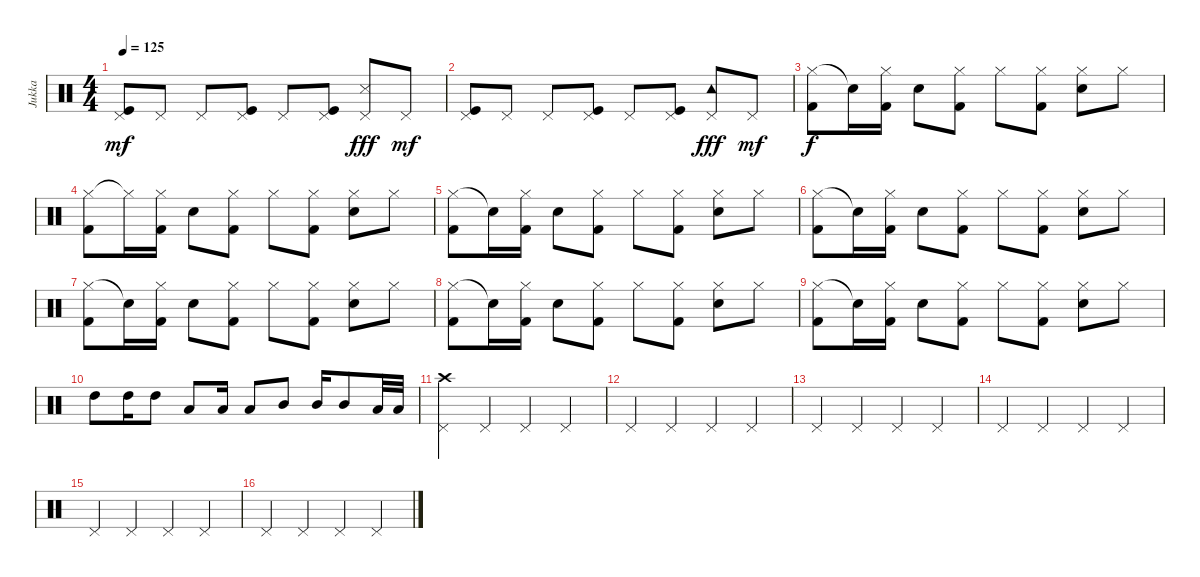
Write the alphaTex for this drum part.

\track ("Jukka" "Jukka") {instrument percussion}
\staff {score}
\articulation defaults
\ts (4 4)
\tempo 125
\clef neutral
\ks c
("Pedal Hi-Hat (hit)" "Kick (hit)").8{dy mf} "Pedal Hi-Hat (hit)".8 "Pedal Hi-Hat (hit)".8 ("Pedal Hi-Hat (hit)" "Kick (hit)").8 "Pedal Hi-Hat (hit)".8 ("Pedal Hi-Hat (hit)" "Kick (hit)").8 ("Pedal Hi-Hat (hit)" "Snare (side stick) 3").8{dy fff} "Pedal Hi-Hat (hit)".8{dy mf} |
("Pedal Hi-Hat (hit)" "Kick (hit)").8 "Pedal Hi-Hat (hit)".8 "Pedal Hi-Hat (hit)".8 ("Pedal Hi-Hat (hit)" "Kick (hit)").8 "Pedal Hi-Hat (hit)".8 ("Pedal Hi-Hat (hit)" "Kick (hit)").8 ("Pedal Hi-Hat (hit)" "Tambourine (hit)").8{dy fff} "Pedal Hi-Hat (hit)".8{dy mf} |
("Hi-Hat (closed)" "Kick (hit) 2").8{dy f} "Snare (hit)"{t}.16 ("Hi-Hat (closed)" "Kick (hit) 2").16 "Electric Snare (hit)".8 ("Hi-Hat (closed)" "Kick (hit) 2").8 "Hi-Hat (closed)".8 ("Hi-Hat (closed)" "Kick (hit) 2").8 ("Hi-Hat (closed)" "Electric Snare (hit)").8 "Hi-Hat (closed)".8 |
("Hi-Hat (closed)" "Kick (hit) 2").8 "Hi-Hat (closed)"{t}.16 ("Hi-Hat (closed)" "Kick (hit) 2").16 "Electric Snare (hit)".8 ("Hi-Hat (closed)" "Kick (hit) 2").8 "Hi-Hat (closed)".8 ("Hi-Hat (closed)" "Kick (hit) 2").8 ("Hi-Hat (closed)" "Electric Snare (hit)").8 "Hi-Hat (closed)".8 |
("Hi-Hat (closed)" "Kick (hit) 2").8 "Snare (hit)"{t}.16 ("Hi-Hat (closed)" "Kick (hit) 2").16 "Electric Snare (hit)".8 ("Hi-Hat (closed)" "Kick (hit) 2").8 "Hi-Hat (closed)".8 ("Hi-Hat (closed)" "Kick (hit) 2").8 ("Hi-Hat (closed)" "Electric Snare (hit)").8 "Hi-Hat (closed)".8 |
("Hi-Hat (closed)" "Kick (hit) 2").8 "Snare (hit)"{t}.16 ("Hi-Hat (closed)" "Kick (hit) 2").16 "Electric Snare (hit)".8 ("Hi-Hat (closed)" "Kick (hit) 2").8 "Hi-Hat (closed)".8 ("Hi-Hat (closed)" "Kick (hit) 2").8 ("Hi-Hat (closed)" "Electric Snare (hit)").8 "Hi-Hat (closed)".8 |
("Hi-Hat (closed)" "Kick (hit) 2").8 "Snare (hit)"{t}.16 ("Hi-Hat (closed)" "Kick (hit) 2").16 "Electric Snare (hit)".8 ("Hi-Hat (closed)" "Kick (hit) 2").8 "Hi-Hat (closed)".8 ("Hi-Hat (closed)" "Kick (hit) 2").8 ("Hi-Hat (closed)" "Electric Snare (hit)").8 "Hi-Hat (closed)".8 |
("Hi-Hat (closed)" "Kick (hit) 2").8 "Snare (hit)"{t}.16 ("Hi-Hat (closed)" "Kick (hit) 2").16 "Electric Snare (hit)".8 ("Hi-Hat (closed)" "Kick (hit) 2").8 "Hi-Hat (closed)".8 ("Hi-Hat (closed)" "Kick (hit) 2").8 ("Hi-Hat (closed)" "Electric Snare (hit)").8 "Hi-Hat (closed)".8 |
("Hi-Hat (closed)" "Kick (hit) 2").8 "Snare (hit)"{t}.16 ("Hi-Hat (closed)" "Kick (hit) 2").16 "Electric Snare (hit)".8 ("Hi-Hat (closed)" "Kick (hit) 2").8 "Hi-Hat (closed)".8 ("Hi-Hat (closed)" "Kick (hit) 2").8 ("Hi-Hat (closed)" "Electric Snare (hit)").8 "Hi-Hat (closed)".8 |
"High Tom (hit)".8 "High Tom (hit)".16 "High Tom (hit)".8 "Low Tom (hit)".8 "Low Tom (hit)".16 "Low Tom (hit)".8 "Mid Tom (hit)".8 "Mid Tom (hit)".16 "Mid Tom (hit)".8 "Low Floor Tom (hit)".32 "Low Floor Tom (hit)".32 |
("Crash high (hit)" "Pedal Hi-Hat (hit)").4 "Pedal Hi-Hat (hit)".4 "Pedal Hi-Hat (hit)".4 "Pedal Hi-Hat (hit)".4 |
"Pedal Hi-Hat (hit)".4 "Pedal Hi-Hat (hit)".4 "Pedal Hi-Hat (hit)".4 "Pedal Hi-Hat (hit)".4 |
"Pedal Hi-Hat (hit)".4 "Pedal Hi-Hat (hit)".4 "Pedal Hi-Hat (hit)".4 "Pedal Hi-Hat (hit)".4 |
"Pedal Hi-Hat (hit)".4 "Pedal Hi-Hat (hit)".4 "Pedal Hi-Hat (hit)".4 "Pedal Hi-Hat (hit)".4 |
"Pedal Hi-Hat (hit)".4 "Pedal Hi-Hat (hit)".4 "Pedal Hi-Hat (hit)".4 "Pedal Hi-Hat (hit)".4 |
"Pedal Hi-Hat (hit)".4 "Pedal Hi-Hat (hit)".4 "Pedal Hi-Hat (hit)".4 "Pedal Hi-Hat (hit)".4
